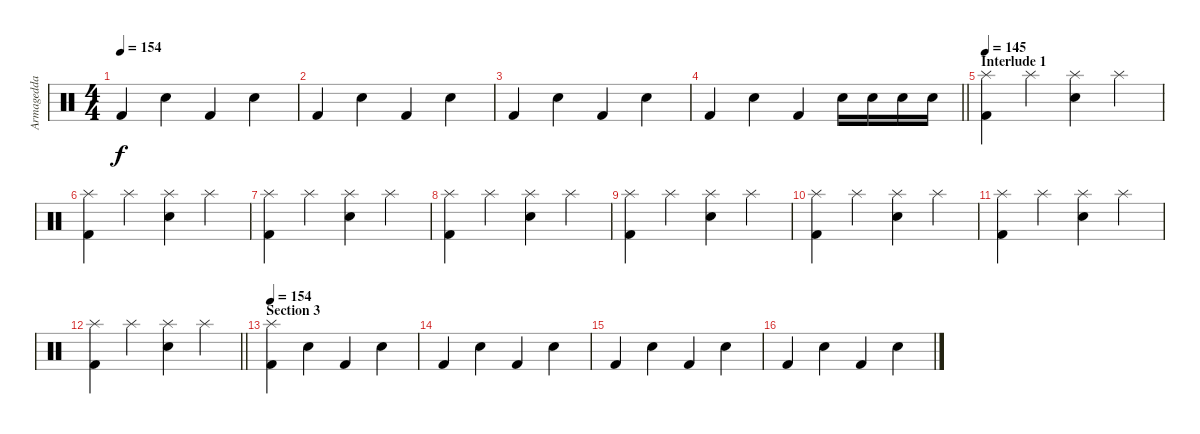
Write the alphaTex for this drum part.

\track ("Armagedda" "Armagedda") {instrument percussion}
\staff {score}
\articulation defaults
\ts (4 4)
\tempo 154
\clef neutral
\ks c "Kick (hit) 2".4{dy f} "Snare (hit) 2".4 "Kick (hit) 2".4 "Snare (hit) 2".4
|
"Kick (hit) 2".4 "Snare (hit) 2".4 "Kick (hit) 2".4 "Snare (hit) 2".4 |
"Kick (hit) 2".4 "Snare (hit) 2".4 "Kick (hit) 2".4 "Snare (hit) 2".4 |
\barLineRight lightlight "Kick (hit) 2".4 "Snare (hit) 2".4 "Kick (hit) 2".4 "Snare (hit) 2".16 "Snare (hit) 2".16 "Snare (hit) 2".16 "Snare (hit) 2".16
|
\section ("" "Interlude 1")
\tempo 145
("Splash (hit)" "Kick (hit) 2").4 "Splash (hit)".4 ("Splash (hit)" "Snare (hit) 2").4 "Splash (hit)".4 |
("Splash (hit)" "Kick (hit) 2").4 "Splash (hit)".4 ("Splash (hit)" "Snare (hit) 2").4 "Splash (hit)".4 |
("Splash (hit)" "Kick (hit) 2").4 "Splash (hit)".4 ("Splash (hit)" "Snare (hit) 2").4 "Splash (hit)".4 |
("Splash (hit)" "Kick (hit) 2").4 "Splash (hit)".4 ("Splash (hit)" "Snare (hit) 2").4 "Splash (hit)".4 |
("Splash (hit)" "Kick (hit) 2").4 "Splash (hit)".4 ("Splash (hit)" "Snare (hit) 2").4 "Splash (hit)".4 |
("Splash (hit)" "Kick (hit) 2").4 "Splash (hit)".4 ("Splash (hit)" "Snare (hit) 2").4 "Splash (hit)".4 |
("Splash (hit)" "Kick (hit) 2").4 "Splash (hit)".4 ("Splash (hit)" "Snare (hit) 2").4 "Splash (hit)".4 |
\barLineRight lightlight
("Splash (hit)" "Kick (hit) 2").4 "Splash (hit)".4 ("Splash (hit)" "Snare (hit) 2").4 "Splash (hit)".4 |
\section ("" "Section 3")
\tempo 154
("Splash (hit)" "Kick (hit) 2").4 "Snare (hit) 2".4 "Kick (hit) 2".4 "Snare (hit) 2".4 |
"Kick (hit) 2".4 "Snare (hit) 2".4 "Kick (hit) 2".4 "Snare (hit) 2".4 |
"Kick (hit) 2".4 "Snare (hit) 2".4 "Kick (hit) 2".4 "Snare (hit) 2".4 |
"Kick (hit) 2".4 "Snare (hit) 2".4 "Kick (hit) 2".4 "Snare (hit) 2".4
